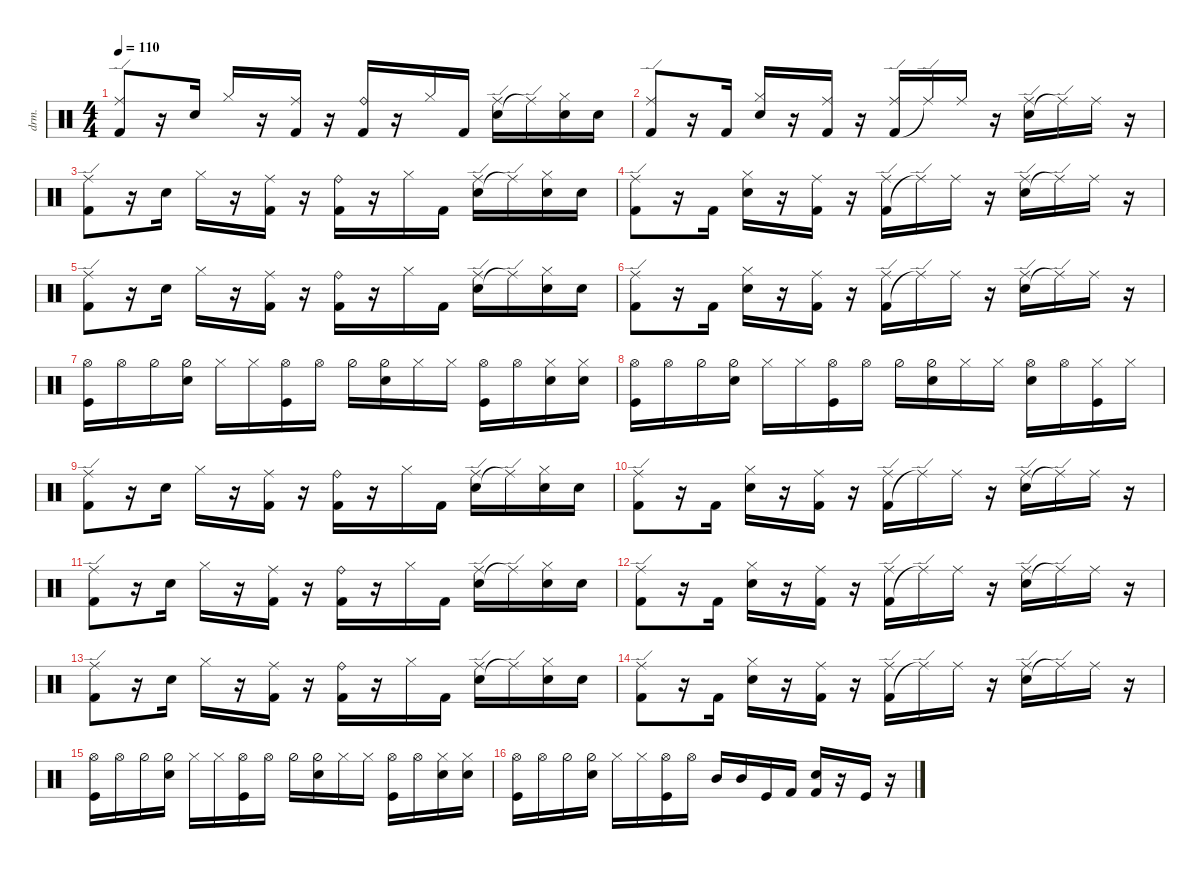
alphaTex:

\defaultSystemsLayout 4
\hideDynamics
\bracketExtendMode nobrackets
\otherSystemsTrackNameOrientation horizontal
\track ("Drumkit" "drm.") {instrument percussion}
\staff {score}
\articulation defaults
\ts (4 4)
\tempo 110
\clef neutral
\ks c
("Kick (hit) 2" "Ride (edge)").8{dy mf beam Up} r.16{beam Up} "Snare (hit) 2".16{beam Up} "Hi-Hat (closed)".16{beam Up} r.16{beam Up} ("Kick (hit) 2" "Ride (middle)").16{beam Up} r.16{beam Up} ("Kick (hit) 2" "Ride (bell)").16{beam Up} r.16{beam Up} "Hi-Hat (closed)".16{beam Up} "Kick (hit) 2".16{beam Up} ("Snare (hit) 2" "Ride (edge)").16{beam Down} "Ride (edge)"{t}.16{beam Down} ("Snare (hit) 2" "Hi-Hat (closed)").16{beam Down} "Snare (hit) 2".16{beam Down} |
("Kick (hit) 2" "Ride (edge)").8{beam Up} r.16{beam Up} "Kick (hit) 2".16{beam Up} ("Snare (hit) 2" "Hi-Hat (closed)").16{beam Up} r.16{beam Up} ("Kick (hit) 2" "Ride (middle)").16{beam Up} r.16{beam Up} ("Kick (hit) 2" "Ride (edge)").16{beam Up} "Ride (edge)"{t}.16{beam Up} "Ride (middle)".16{beam Up} r.16{beam Up} ("Snare (hit) 2" "Ride (edge)").16{beam Down} "Ride (edge)"{t}.16{beam Down} "Ride (middle)".16{beam Down} r.16{beam Down} |
("Kick (hit) 2" "Ride (edge)").8{beam Down} r.16{beam Down} "Snare (hit) 2".16{beam Down} "Hi-Hat (closed)".16{beam Down} r.16{beam Down} ("Kick (hit) 2" "Ride (middle)").16{beam Down} r.16{beam Down} ("Kick (hit) 2" "Ride (bell)").16{beam Down} r.16{beam Down} "Hi-Hat (closed)".16{beam Down} "Kick (hit) 2".16{beam Down} ("Snare (hit) 2" "Ride (edge)").16{beam Down} "Ride (edge)"{t}.16{beam Down} ("Snare (hit) 2" "Hi-Hat (closed)").16{beam Down} "Snare (hit) 2".16{beam Down} |
("Kick (hit) 2" "Ride (edge)").8{beam Down} r.16{beam Down} "Kick (hit) 2".16{beam Down} ("Snare (hit) 2" "Hi-Hat (closed)").16{beam Down} r.16{beam Down} ("Kick (hit) 2" "Ride (middle)").16{beam Down} r.16{beam Down} ("Kick (hit) 2" "Ride (edge)").16{beam Down} "Ride (edge)"{t}.16{beam Down} "Ride (middle)".16{beam Down} r.16{beam Down} ("Snare (hit) 2" "Ride (edge)").16{beam Down} "Ride (edge)"{t}.16{beam Down} "Ride (middle)".16{beam Down} r.16{beam Down} |
("Kick (hit) 2" "Ride (edge)").8{beam Down} r.16{beam Down} "Snare (hit) 2".16{beam Down} "Hi-Hat (closed)".16{beam Down} r.16{beam Down} ("Kick (hit) 2" "Ride (middle)").16{beam Down} r.16{beam Down} ("Kick (hit) 2" "Ride (bell)").16{beam Down} r.16{beam Down} "Hi-Hat (closed)".16{beam Down} "Kick (hit) 2".16{beam Down} ("Snare (hit) 2" "Ride (edge)").16{beam Down} "Ride (edge)"{t}.16{beam Down} ("Snare (hit) 2" "Hi-Hat (closed)").16{beam Down} "Snare (hit) 2".16{beam Down} |
("Kick (hit) 2" "Ride (edge)").8{beam Down} r.16{beam Down} "Kick (hit) 2".16{beam Down} ("Snare (hit) 2" "Hi-Hat (closed)").16{beam Down} r.16{beam Down} ("Kick (hit) 2" "Ride (middle)").16{beam Down} r.16{beam Down} ("Kick (hit) 2" "Ride (edge)").16{beam Down} "Ride (edge)"{t}.16{beam Down} "Ride (middle)".16{beam Down} r.16{beam Down} ("Snare (hit) 2" "Ride (edge)").16{beam Down} "Ride (edge)"{t}.16{beam Down} "Ride (middle)".16{beam Down} r.16{beam Down} |
("Hi-Hat (open)" "Kick (hit)").16{beam Down} "Hi-Hat (open)".16{beam Down} "Hi-Hat (half)".16{beam Down} ("Hi-Hat (half)" "Snare (hit) 2").16{beam Down} "Hi-Hat (closed)".16{beam Down} "Hi-Hat (closed)".16{beam Down} ("Hi-Hat (open)" "Kick (hit)").16{beam Down} "Hi-Hat (open)".16{beam Down} "Hi-Hat (half)".16{beam Down} ("Snare (hit) 2" "Hi-Hat (half)").16{beam Down} "Hi-Hat (closed)".16{beam Down} "Hi-Hat (closed)".16{beam Down} ("Hi-Hat (open)" "Kick (hit)").16{beam Down} "Hi-Hat (open)".16{beam Down} ("Snare (hit) 2" "Hi-Hat (closed)").16{beam Down} ("Hi-Hat (closed)" "Snare (hit) 2").16{beam Down} |
("Hi-Hat (open)" "Kick (hit)").16{beam Down} "Hi-Hat (open)".16{beam Down} "Hi-Hat (half)".16{beam Down} ("Hi-Hat (half)" "Snare (hit) 2").16{beam Down} "Hi-Hat (closed)".16{beam Down} "Hi-Hat (closed)".16{beam Down} ("Hi-Hat (open)" "Kick (hit)").16{beam Down} "Hi-Hat (open)".16{beam Down} "Hi-Hat (half)".16{beam Down} ("Snare (hit) 2" "Hi-Hat (half)").16{beam Down} "Hi-Hat (closed)".16{beam Down} "Hi-Hat (closed)".16{beam Down} ("Hi-Hat (open)" "Snare (hit) 2").16{beam Down} "Hi-Hat (open)".16{beam Down} ("Hi-Hat (closed)" "Kick (hit)").16{beam Down} "Hi-Hat (closed)".16{beam Down} |
("Kick (hit) 2" "Ride (edge)").8{beam Down} r.16{beam Down} "Snare (hit) 2".16{beam Down} "Hi-Hat (closed)".16{beam Down} r.16{beam Down} ("Kick (hit) 2" "Ride (middle)").16{beam Down} r.16{beam Down} ("Kick (hit) 2" "Ride (bell)").16{beam Down} r.16{beam Down} "Hi-Hat (closed)".16{beam Down} "Kick (hit) 2".16{beam Down} ("Snare (hit) 2" "Ride (edge)").16{beam Down} "Ride (edge)"{t}.16{beam Down} ("Snare (hit) 2" "Hi-Hat (closed)").16{beam Down} "Snare (hit) 2".16{beam Down} |
("Kick (hit) 2" "Ride (edge)").8{beam Down} r.16{beam Down} "Kick (hit) 2".16{beam Down} ("Snare (hit) 2" "Hi-Hat (closed)").16{beam Down} r.16{beam Down} ("Kick (hit) 2" "Ride (middle)").16{beam Down} r.16{beam Down} ("Kick (hit) 2" "Ride (edge)").16{beam Down} "Ride (edge)"{t}.16{beam Down} "Ride (middle)".16{beam Down} r.16{beam Down} ("Snare (hit) 2" "Ride (edge)").16{beam Down} "Ride (edge)"{t}.16{beam Down} "Ride (middle)".16{beam Down} r.16{beam Down} |
("Kick (hit) 2" "Ride (edge)").8{beam Down} r.16{beam Down} "Snare (hit) 2".16{beam Down} "Hi-Hat (closed)".16{beam Down} r.16{beam Down} ("Kick (hit) 2" "Ride (middle)").16{beam Down} r.16{beam Down} ("Kick (hit) 2" "Ride (bell)").16{beam Down} r.16{beam Down} "Hi-Hat (closed)".16{beam Down} "Kick (hit) 2".16{beam Down} ("Snare (hit) 2" "Ride (edge)").16{beam Down} "Ride (edge)"{t}.16{beam Down} ("Snare (hit) 2" "Hi-Hat (closed)").16{beam Down} "Snare (hit) 2".16{beam Down} |
("Kick (hit) 2" "Ride (edge)").8{beam Down} r.16{beam Down} "Kick (hit) 2".16{beam Down} ("Snare (hit) 2" "Hi-Hat (closed)").16{beam Down} r.16{beam Down} ("Kick (hit) 2" "Ride (middle)").16{beam Down} r.16{beam Down} ("Kick (hit) 2" "Ride (edge)").16{beam Down} "Ride (edge)"{t}.16{beam Down} "Ride (middle)".16{beam Down} r.16{beam Down} ("Snare (hit) 2" "Ride (edge)").16{beam Down} "Ride (edge)"{t}.16{beam Down} "Ride (middle)".16{beam Down} r.16{beam Down} |
("Kick (hit) 2" "Ride (edge)").8{beam Down} r.16{beam Down} "Snare (hit) 2".16{beam Down} "Hi-Hat (closed)".16{beam Down} r.16{beam Down} ("Kick (hit) 2" "Ride (middle)").16{beam Down} r.16{beam Down} ("Kick (hit) 2" "Ride (bell)").16{beam Down} r.16{beam Down} "Hi-Hat (closed)".16{beam Down} "Kick (hit) 2".16{beam Down} ("Snare (hit) 2" "Ride (edge)").16{beam Down} "Ride (edge)"{t}.16{beam Down} ("Snare (hit) 2" "Hi-Hat (closed)").16{beam Down} "Snare (hit) 2".16{beam Down} |
("Kick (hit) 2" "Ride (edge)").8{beam Down} r.16{beam Down} "Kick (hit) 2".16{beam Down} ("Snare (hit) 2" "Hi-Hat (closed)").16{beam Down} r.16{beam Down} ("Kick (hit) 2" "Ride (middle)").16{beam Down} r.16{beam Down} ("Kick (hit) 2" "Ride (edge)").16{beam Down} "Ride (edge)"{t}.16{beam Down} "Ride (middle)".16{beam Down} r.16{beam Down} ("Snare (hit) 2" "Ride (edge)").16{beam Down} "Ride (edge)"{t}.16{beam Down} "Ride (middle)".16{beam Down} r.16{beam Down} |
("Hi-Hat (open)" "Kick (hit)").16{beam Down} "Hi-Hat (open)".16{beam Down} "Hi-Hat (half)".16{beam Down} ("Hi-Hat (half)" "Snare (hit) 2").16{beam Down} "Hi-Hat (closed)".16{beam Down} "Hi-Hat (closed)".16{beam Down} ("Hi-Hat (open)" "Kick (hit)").16{beam Down} "Hi-Hat (open)".16{beam Down} "Hi-Hat (half)".16{beam Down} ("Snare (hit) 2" "Hi-Hat (half)").16{beam Down} "Hi-Hat (closed)".16{beam Down} "Hi-Hat (closed)".16{beam Down} ("Hi-Hat (open)" "Kick (hit)").16{beam Down} "Hi-Hat (open)".16{beam Down} ("Snare (hit) 2" "Hi-Hat (closed)").16{beam Down} ("Hi-Hat (closed)" "Snare (hit) 2").16{beam Down} |
("Hi-Hat (open)" "Kick (hit)").16{beam Down} "Hi-Hat (open)".16{beam Down} "Hi-Hat (half)".16{beam Down} ("Hi-Hat (half)" "Snare (hit) 2").16{beam Down} "Hi-Hat (closed)".16{beam Down} "Hi-Hat (closed)".16{beam Down} ("Hi-Hat (open)" "Kick (hit)").16{beam Down} "Hi-Hat (open)".16{beam Down} "Mid Tom (hit)".16{beam Up} "Mid Tom (hit)".16{beam Up} "Kick (hit)".16{beam Up} "Kick (hit) 2".16{beam Up} ("Kick (hit) 2" "Snare (hit) 2").16{beam Up} r.16{beam Up} "Kick (hit)".16{beam Up} r.16{beam Up}
